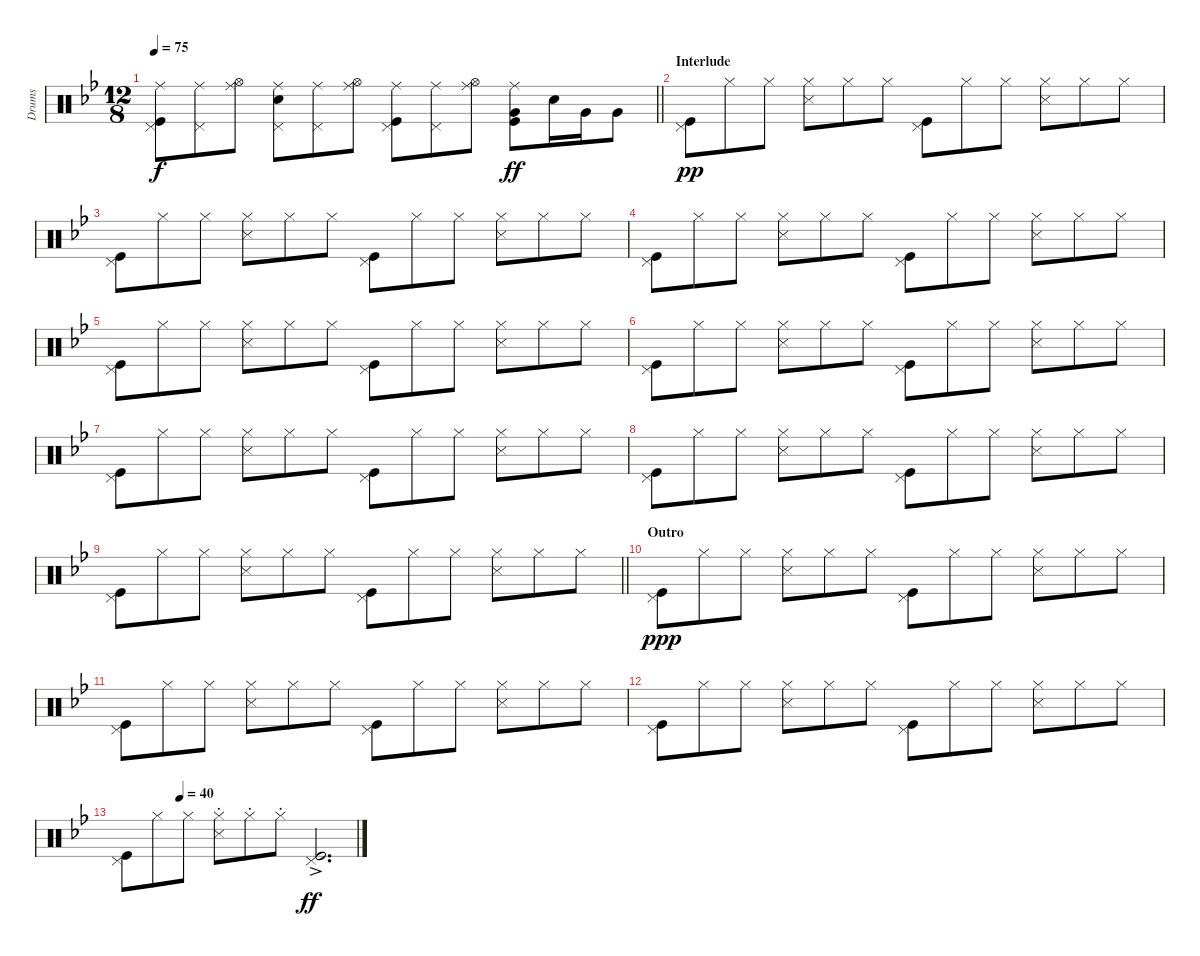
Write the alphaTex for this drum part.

\track ("Drums" "Drums") {instrument percussion}
\staff {score}
\articulation defaults
\ts (12 8)
\tempo 75
\clef neutral
\barLineRight lightlight
\ks bb
("Ride (middle)" "Pedal Hi-Hat (hit)" "Kick (hit)").8{dy f} ("Ride (middle)" "Pedal Hi-Hat (hit)").8 ("Ride (middle)" "Hi-Hat (open)").8 ("Ride (middle)" "Snare (hit) 2" "Pedal Hi-Hat (hit)").8 ("Ride (middle)" "Pedal Hi-Hat (hit)").8 ("Ride (middle)" "Hi-Hat (open)").8 ("Ride (middle)" "Pedal Hi-Hat (hit)" "Kick (hit)").8 ("Ride (middle)" "Pedal Hi-Hat (hit)").8 ("Ride (middle)" "Hi-Hat (open)").8 ("Ride (middle)" "Very Low Tom (hit)" "Kick (hit)").8{dy ff} "Snare (hit) 2".16 "Very Low Tom (hit)".16 "Very Low Tom (hit)".8 |
\section ("" "Interlude")
("Pedal Hi-Hat (hit)" "Kick (hit)").8{dy pp volume 8} "Hi-Hat (closed)".8 "Hi-Hat (closed)".8 ("Hi-Hat (closed)" "Snare (side stick) 3").8 "Hi-Hat (closed)".8 "Hi-Hat (closed)".8 ("Pedal Hi-Hat (hit)" "Kick (hit)").8 "Hi-Hat (closed)".8 "Hi-Hat (closed)".8 ("Hi-Hat (closed)" "Snare (side stick) 3").8 "Hi-Hat (closed)".8 "Hi-Hat (closed)".8 |
("Pedal Hi-Hat (hit)" "Kick (hit)").8 "Hi-Hat (closed)".8 "Hi-Hat (closed)".8 ("Hi-Hat (closed)" "Snare (side stick) 3").8 "Hi-Hat (closed)".8 "Hi-Hat (closed)".8 ("Pedal Hi-Hat (hit)" "Kick (hit)").8 "Hi-Hat (closed)".8 "Hi-Hat (closed)".8 ("Hi-Hat (closed)" "Snare (side stick) 3").8 "Hi-Hat (closed)".8 "Hi-Hat (closed)".8 |
("Pedal Hi-Hat (hit)" "Kick (hit)").8 "Hi-Hat (closed)".8 "Hi-Hat (closed)".8 ("Hi-Hat (closed)" "Snare (side stick) 3").8 "Hi-Hat (closed)".8 "Hi-Hat (closed)".8 ("Pedal Hi-Hat (hit)" "Kick (hit)").8 "Hi-Hat (closed)".8 "Hi-Hat (closed)".8 ("Hi-Hat (closed)" "Snare (side stick) 3").8 "Hi-Hat (closed)".8 "Hi-Hat (closed)".8 |
("Pedal Hi-Hat (hit)" "Kick (hit)").8 "Hi-Hat (closed)".8 "Hi-Hat (closed)".8 ("Hi-Hat (closed)" "Snare (side stick) 3").8 "Hi-Hat (closed)".8 "Hi-Hat (closed)".8 ("Pedal Hi-Hat (hit)" "Kick (hit)").8 "Hi-Hat (closed)".8 "Hi-Hat (closed)".8 ("Hi-Hat (closed)" "Snare (side stick) 3").8 "Hi-Hat (closed)".8 "Hi-Hat (closed)".8 |
("Pedal Hi-Hat (hit)" "Kick (hit)").8 "Hi-Hat (closed)".8 "Hi-Hat (closed)".8 ("Hi-Hat (closed)" "Snare (side stick) 3").8 "Hi-Hat (closed)".8 "Hi-Hat (closed)".8 ("Pedal Hi-Hat (hit)" "Kick (hit)").8 "Hi-Hat (closed)".8 "Hi-Hat (closed)".8 ("Hi-Hat (closed)" "Snare (side stick) 3").8 "Hi-Hat (closed)".8 "Hi-Hat (closed)".8 |
("Pedal Hi-Hat (hit)" "Kick (hit)").8 "Hi-Hat (closed)".8 "Hi-Hat (closed)".8 ("Hi-Hat (closed)" "Snare (side stick) 3").8 "Hi-Hat (closed)".8 "Hi-Hat (closed)".8 ("Pedal Hi-Hat (hit)" "Kick (hit)").8 "Hi-Hat (closed)".8 "Hi-Hat (closed)".8 ("Hi-Hat (closed)" "Snare (side stick) 3").8 "Hi-Hat (closed)".8 "Hi-Hat (closed)".8 |
("Pedal Hi-Hat (hit)" "Kick (hit)").8 "Hi-Hat (closed)".8 "Hi-Hat (closed)".8 ("Hi-Hat (closed)" "Snare (side stick) 3").8 "Hi-Hat (closed)".8 "Hi-Hat (closed)".8 ("Pedal Hi-Hat (hit)" "Kick (hit)").8 "Hi-Hat (closed)".8 "Hi-Hat (closed)".8 ("Hi-Hat (closed)" "Snare (side stick) 3").8 "Hi-Hat (closed)".8 "Hi-Hat (closed)".8 |
\barLineRight lightlight
("Pedal Hi-Hat (hit)" "Kick (hit)").8 "Hi-Hat (closed)".8 "Hi-Hat (closed)".8 ("Hi-Hat (closed)" "Snare (side stick) 3").8 "Hi-Hat (closed)".8 "Hi-Hat (closed)".8 ("Pedal Hi-Hat (hit)" "Kick (hit)").8 "Hi-Hat (closed)".8 "Hi-Hat (closed)".8 ("Hi-Hat (closed)" "Snare (side stick) 3").8 "Hi-Hat (closed)".8 "Hi-Hat (closed)".8 |
\section ("" "Outro")
("Pedal Hi-Hat (hit)" "Kick (hit)").8{dy ppp} "Hi-Hat (closed)".8 "Hi-Hat (closed)".8 ("Hi-Hat (closed)" "Snare (side stick) 3").8 "Hi-Hat (closed)".8 "Hi-Hat (closed)".8 ("Pedal Hi-Hat (hit)" "Kick (hit)").8 "Hi-Hat (closed)".8 "Hi-Hat (closed)".8 ("Hi-Hat (closed)" "Snare (side stick) 3").8 "Hi-Hat (closed)".8 "Hi-Hat (closed)".8 |
("Pedal Hi-Hat (hit)" "Kick (hit)").8 "Hi-Hat (closed)".8 "Hi-Hat (closed)".8 ("Hi-Hat (closed)" "Snare (side stick) 3").8 "Hi-Hat (closed)".8 "Hi-Hat (closed)".8 ("Pedal Hi-Hat (hit)" "Kick (hit)").8 "Hi-Hat (closed)".8 "Hi-Hat (closed)".8 ("Hi-Hat (closed)" "Snare (side stick) 3").8 "Hi-Hat (closed)".8 "Hi-Hat (closed)".8 |
("Pedal Hi-Hat (hit)" "Kick (hit)").8 "Hi-Hat (closed)".8 "Hi-Hat (closed)".8 ("Hi-Hat (closed)" "Snare (side stick) 3").8 "Hi-Hat (closed)".8 "Hi-Hat (closed)".8 ("Pedal Hi-Hat (hit)" "Kick (hit)").8 "Hi-Hat (closed)".8 "Hi-Hat (closed)".8 ("Hi-Hat (closed)" "Snare (side stick) 3").8 "Hi-Hat (closed)".8 "Hi-Hat (closed)".8 |
\tempo (40 0.25)
("Pedal Hi-Hat (hit)" "Kick (hit)").8 "Hi-Hat (closed)".8 "Hi-Hat (closed)".8 ("Hi-Hat (closed)"{st} "Snare (side stick) 3"{st}).8 "Hi-Hat (closed)"{st}.8 "Hi-Hat (closed)"{st}.8 ("Pedal Hi-Hat (hit)"{ac} "Kick (hit)"{ac}).2{d dy ff}
